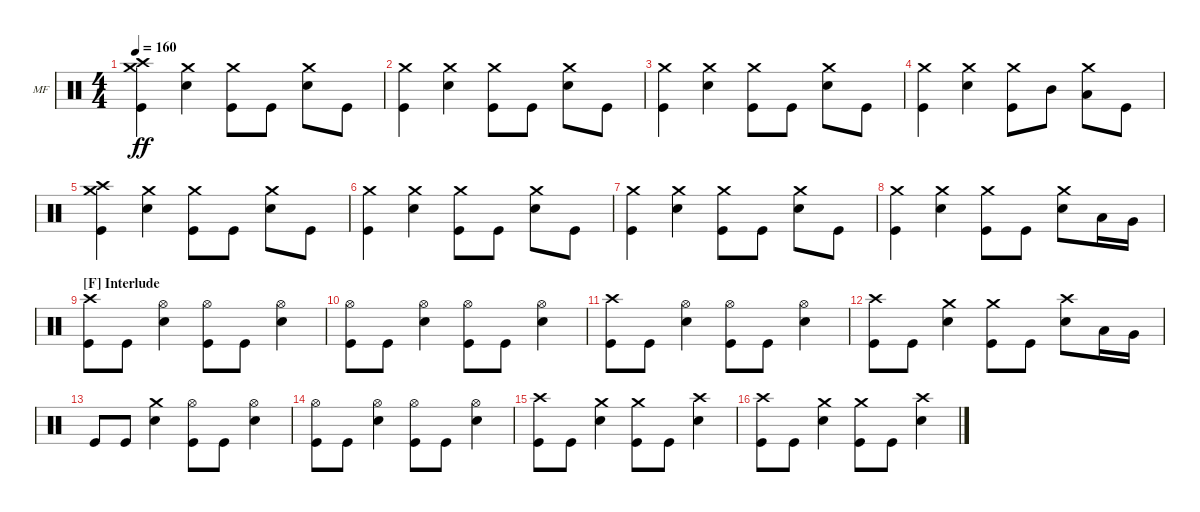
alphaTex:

\defaultSystemsLayout 4
\bracketExtendMode groupsimilarinstruments
\firstSystemTrackNameOrientation horizontal
\otherSystemsTrackNameOrientation horizontal
\track ("Mike Felumlee - Drums" "MF") {instrument percussion}
\staff {score}
\articulation defaults
\ts (4 4)
\tempo 160
\clef neutral
\ks c
("Crash high (hit)" "Crash medium (hit)" "Kick (hit)").4{dy ff} ("Snare (hit) 2" "Crash medium (hit)").4 ("Kick (hit)" "Crash medium (hit)").8 "Kick (hit)".8 ("Snare (hit) 2" "Crash medium (hit)").8 "Kick (hit)".8 |
("Kick (hit)" "Crash medium (hit)").4 ("Snare (hit) 2" "Crash medium (hit)").4 ("Kick (hit)" "Crash medium (hit)").8 "Kick (hit)".8 ("Snare (hit) 2" "Crash medium (hit)").8 "Kick (hit)".8 |
("Kick (hit)" "Crash medium (hit)").4 ("Snare (hit) 2" "Crash medium (hit)").4 ("Kick (hit)" "Crash medium (hit)").8 "Kick (hit)".8 ("Snare (hit) 2" "Crash medium (hit)").8 "Kick (hit)".8 |
("Kick (hit)" "Crash medium (hit)").4 ("Snare (hit) 2" "Crash medium (hit)").4 ("Kick (hit)" "Crash medium (hit)").8 "Mid Tom (hit)".8 ("Crash medium (hit)" "Low Tom (hit)").8 "Kick (hit)".8 |
("Crash high (hit)" "Crash medium (hit)" "Kick (hit)").4 ("Snare (hit) 2" "Crash medium (hit)").4 ("Kick (hit)" "Crash medium (hit)").8 "Kick (hit)".8 ("Snare (hit) 2" "Crash medium (hit)").8 "Kick (hit)".8 |
("Kick (hit)" "Crash medium (hit)").4 ("Snare (hit) 2" "Crash medium (hit)").4 ("Kick (hit)" "Crash medium (hit)").8 "Kick (hit)".8 ("Snare (hit) 2" "Crash medium (hit)").8 "Kick (hit)".8 |
("Kick (hit)" "Crash medium (hit)").4 ("Snare (hit) 2" "Crash medium (hit)").4 ("Kick (hit)" "Crash medium (hit)").8 "Kick (hit)".8 ("Snare (hit) 2" "Crash medium (hit)").8 "Kick (hit)".8 |
("Kick (hit)" "Crash medium (hit)").4 ("Snare (hit) 2" "Crash medium (hit)").4 ("Kick (hit)" "Crash medium (hit)").8 "Kick (hit)".8 ("Snare (hit) 2" "Crash medium (hit)").8 "Low Tom (hit)".16 "Very Low Tom (hit)".16 |
\section ("F" "Interlude")
("Crash high (hit)" "Kick (hit)").8 "Kick (hit)".8 ("Hi-Hat (open)" "Snare (hit) 2").4 ("Hi-Hat (open)" "Kick (hit)").8 "Kick (hit)".8 ("Hi-Hat (open)" "Snare (hit) 2").4 |
("Hi-Hat (open)" "Kick (hit)").8 "Kick (hit)".8 ("Hi-Hat (open)" "Snare (hit) 2").4 ("Hi-Hat (open)" "Kick (hit)").8 "Kick (hit)".8 ("Hi-Hat (open)" "Snare (hit) 2").4 |
("Crash high (hit)" "Kick (hit)").8 "Kick (hit)".8 ("Hi-Hat (open)" "Snare (hit) 2").4 ("Hi-Hat (open)" "Kick (hit)").8 "Kick (hit)".8 ("Hi-Hat (open)" "Snare (hit) 2").4 |
("Crash high (hit)" "Kick (hit)").8 "Kick (hit)".8 ("Snare (hit) 2" "Crash medium (hit)").4 ("Kick (hit)" "Crash medium (hit)").8 "Kick (hit)".8 ("Snare (hit) 2" "Crash high (hit)").8 "Low Tom (hit)".16 "Very Low Tom (hit)".16 |
"Kick (hit)".8 "Kick (hit)".8 ("Snare (hit) 2" "Crash medium (hit)").4 ("Hi-Hat (open)" "Kick (hit)").8 "Kick (hit)".8 ("Hi-Hat (open)" "Snare (hit) 2").4 |
("Hi-Hat (open)" "Kick (hit)").8 "Kick (hit)".8 ("Hi-Hat (open)" "Snare (hit) 2").4 ("Hi-Hat (open)" "Kick (hit)").8 "Kick (hit)".8 ("Hi-Hat (open)" "Snare (hit) 2").4 |
("Crash high (hit)" "Kick (hit)").8 "Kick (hit)".8 ("Snare (hit) 2" "Crash medium (hit)").4 ("Kick (hit)" "Crash medium (hit)").8 "Kick (hit)".8 ("Snare (hit) 2" "Crash high (hit)").4 |
("Crash high (hit)" "Kick (hit)").8 "Kick (hit)".8 ("Snare (hit) 2" "Crash medium (hit)").4 ("Kick (hit)" "Crash medium (hit)").8 "Kick (hit)".8 ("Snare (hit) 2" "Crash high (hit)").4
